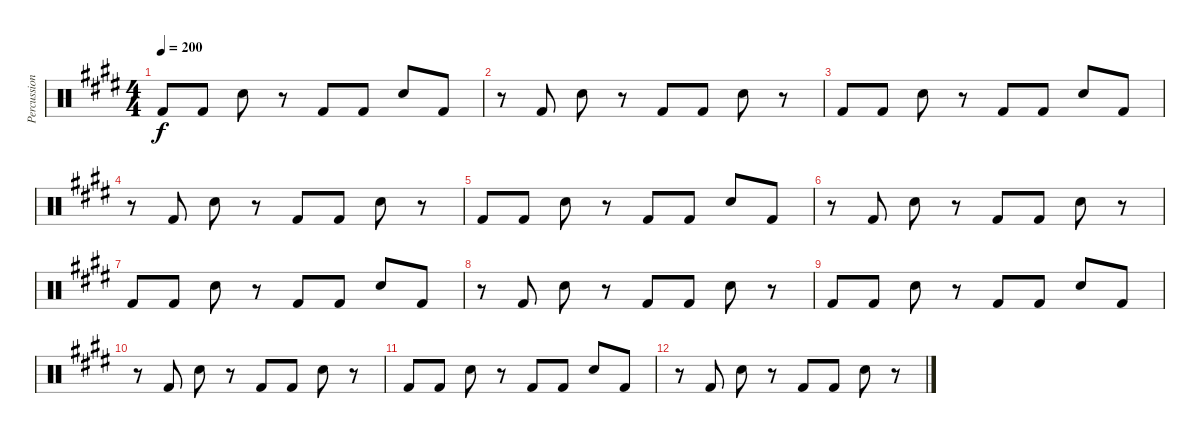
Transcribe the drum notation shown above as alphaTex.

\track ("Percussion" "Percussion") {instrument percussion}
\staff {score}
\articulation defaults
\ts (4 4)
\tempo 200
\clef neutral
\ks e "Kick (hit) 2".8{dy f} "Kick (hit) 2".8 "Snare (hit) 2".8
r.8 "Kick (hit) 2".8 "Kick (hit) 2".8 "Snare (hit) 2".8 "Kick (hit) 2".8 |
r.8 "Kick (hit) 2".8 "Snare (hit) 2".8 r.8 "Kick (hit) 2".8 "Kick (hit) 2".8 "Snare (hit) 2".8 r.8 |
"Kick (hit) 2".8 "Kick (hit) 2".8 "Snare (hit) 2".8 r.8 "Kick (hit) 2".8 "Kick (hit) 2".8 "Snare (hit) 2".8 "Kick (hit) 2".8 |
r.8 "Kick (hit) 2".8 "Snare (hit) 2".8 r.8 "Kick (hit) 2".8 "Kick (hit) 2".8 "Snare (hit) 2".8 r.8 |
"Kick (hit) 2".8 "Kick (hit) 2".8 "Snare (hit) 2".8 r.8 "Kick (hit) 2".8 "Kick (hit) 2".8 "Snare (hit) 2".8 "Kick (hit) 2".8 |
r.8 "Kick (hit) 2".8 "Snare (hit) 2".8 r.8 "Kick (hit) 2".8 "Kick (hit) 2".8 "Snare (hit) 2".8 r.8 |
"Kick (hit) 2".8 "Kick (hit) 2".8 "Snare (hit) 2".8 r.8 "Kick (hit) 2".8 "Kick (hit) 2".8 "Snare (hit) 2".8 "Kick (hit) 2".8 |
r.8 "Kick (hit) 2".8 "Snare (hit) 2".8 r.8 "Kick (hit) 2".8 "Kick (hit) 2".8 "Snare (hit) 2".8 r.8 |
"Kick (hit) 2".8 "Kick (hit) 2".8 "Snare (hit) 2".8 r.8 "Kick (hit) 2".8 "Kick (hit) 2".8 "Snare (hit) 2".8 "Kick (hit) 2".8 |
r.8 "Kick (hit) 2".8 "Snare (hit) 2".8 r.8 "Kick (hit) 2".8 "Kick (hit) 2".8 "Snare (hit) 2".8 r.8 |
"Kick (hit) 2".8 "Kick (hit) 2".8 "Snare (hit) 2".8 r.8 "Kick (hit) 2".8 "Kick (hit) 2".8 "Snare (hit) 2".8 "Kick (hit) 2".8 |
r.8 "Kick (hit) 2".8 "Snare (hit) 2".8 r.8 "Kick (hit) 2".8 "Kick (hit) 2".8 "Snare (hit) 2".8 r.8
